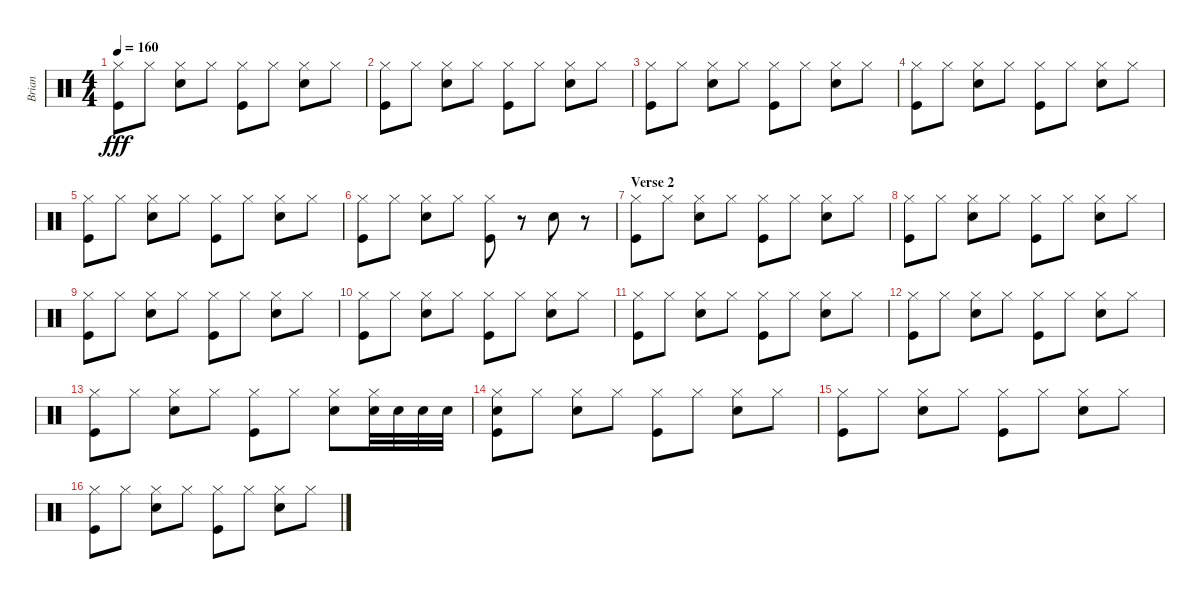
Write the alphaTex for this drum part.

\track ("Brian" "Brian") {instrument percussion}
\staff {score}
\articulation defaults
\ts (4 4)
\tempo 160
\clef neutral
\ks c
("Hi-Hat (closed)" "Kick (hit)").8{dy fff} "Hi-Hat (closed)".8 ("Hi-Hat (closed)" "Electric Snare (hit)").8 "Hi-Hat (closed)".8 ("Hi-Hat (closed)" "Kick (hit)").8 "Hi-Hat (closed)".8 ("Hi-Hat (closed)" "Electric Snare (hit)").8 "Hi-Hat (closed)".8 |
("Hi-Hat (closed)" "Kick (hit)").8 "Hi-Hat (closed)".8 ("Hi-Hat (closed)" "Electric Snare (hit)").8 "Hi-Hat (closed)".8 ("Hi-Hat (closed)" "Kick (hit)").8 "Hi-Hat (closed)".8 ("Hi-Hat (closed)" "Electric Snare (hit)").8 "Hi-Hat (closed)".8 |
("Hi-Hat (closed)" "Kick (hit)").8 "Hi-Hat (closed)".8 ("Hi-Hat (closed)" "Electric Snare (hit)").8 "Hi-Hat (closed)".8 ("Hi-Hat (closed)" "Kick (hit)").8 "Hi-Hat (closed)".8 ("Hi-Hat (closed)" "Electric Snare (hit)").8 "Hi-Hat (closed)".8 |
("Hi-Hat (closed)" "Kick (hit)").8 "Hi-Hat (closed)".8 ("Hi-Hat (closed)" "Electric Snare (hit)").8 "Hi-Hat (closed)".8 ("Hi-Hat (closed)" "Kick (hit)").8 "Hi-Hat (closed)".8 ("Hi-Hat (closed)" "Electric Snare (hit)").8 "Hi-Hat (closed)".8 |
("Hi-Hat (closed)" "Kick (hit)").8 "Hi-Hat (closed)".8 ("Hi-Hat (closed)" "Electric Snare (hit)").8 "Hi-Hat (closed)".8 ("Hi-Hat (closed)" "Kick (hit)").8 "Hi-Hat (closed)".8 ("Hi-Hat (closed)" "Electric Snare (hit)").8 "Hi-Hat (closed)".8 |
("Hi-Hat (closed)" "Kick (hit)").8 "Hi-Hat (closed)".8 ("Hi-Hat (closed)" "Electric Snare (hit)").8 "Hi-Hat (closed)".8 ("Hi-Hat (closed)" "Kick (hit)").8 r.8 "Electric Snare (hit)".8 r.8 |
\section ("" "Verse 2")
("Hi-Hat (closed)" "Kick (hit)").8 "Hi-Hat (closed)".8 ("Hi-Hat (closed)" "Electric Snare (hit)").8 "Hi-Hat (closed)".8 ("Hi-Hat (closed)" "Kick (hit)").8 "Hi-Hat (closed)".8 ("Hi-Hat (closed)" "Electric Snare (hit)").8 "Hi-Hat (closed)".8 |
("Hi-Hat (closed)" "Kick (hit)").8 "Hi-Hat (closed)".8 ("Hi-Hat (closed)" "Electric Snare (hit)").8 "Hi-Hat (closed)".8 ("Hi-Hat (closed)" "Kick (hit)").8 "Hi-Hat (closed)".8 ("Hi-Hat (closed)" "Electric Snare (hit)").8 "Hi-Hat (closed)".8 |
("Hi-Hat (closed)" "Kick (hit)").8 "Hi-Hat (closed)".8 ("Hi-Hat (closed)" "Electric Snare (hit)").8 "Hi-Hat (closed)".8 ("Hi-Hat (closed)" "Kick (hit)").8 "Hi-Hat (closed)".8 ("Hi-Hat (closed)" "Electric Snare (hit)").8 "Hi-Hat (closed)".8 |
("Hi-Hat (closed)" "Kick (hit)").8 "Hi-Hat (closed)".8 ("Hi-Hat (closed)" "Electric Snare (hit)").8 "Hi-Hat (closed)".8 ("Hi-Hat (closed)" "Kick (hit)").8 "Hi-Hat (closed)".8 ("Hi-Hat (closed)" "Electric Snare (hit)").8 "Hi-Hat (closed)".8 |
("Hi-Hat (closed)" "Kick (hit)").8 "Hi-Hat (closed)".8 ("Hi-Hat (closed)" "Electric Snare (hit)").8 "Hi-Hat (closed)".8 ("Hi-Hat (closed)" "Kick (hit)").8 "Hi-Hat (closed)".8 ("Hi-Hat (closed)" "Electric Snare (hit)").8 "Hi-Hat (closed)".8 |
("Hi-Hat (closed)" "Kick (hit)").8 "Hi-Hat (closed)".8 ("Hi-Hat (closed)" "Electric Snare (hit)").8 "Hi-Hat (closed)".8 ("Hi-Hat (closed)" "Kick (hit)").8 "Hi-Hat (closed)".8 ("Hi-Hat (closed)" "Electric Snare (hit)").8 "Hi-Hat (closed)".8 |
("Hi-Hat (closed)" "Kick (hit)").8 "Hi-Hat (closed)".8 ("Hi-Hat (closed)" "Electric Snare (hit)").8 "Hi-Hat (closed)".8 ("Hi-Hat (closed)" "Kick (hit)").8 "Hi-Hat (closed)".8 ("Hi-Hat (closed)" "Electric Snare (hit)").8 ("Hi-Hat (closed)" "Snare (hit) 2").32 "Snare (hit) 2".32 "Snare (hit) 2".32 "Snare (hit) 2".32 |
("Hi-Hat (closed)" "Snare (hit) 2" "Kick (hit)").8 "Hi-Hat (closed)".8 ("Hi-Hat (closed)" "Electric Snare (hit)").8 "Hi-Hat (closed)".8 ("Hi-Hat (closed)" "Kick (hit)").8 "Hi-Hat (closed)".8 ("Hi-Hat (closed)" "Electric Snare (hit)").8 "Hi-Hat (closed)".8 |
("Hi-Hat (closed)" "Kick (hit)").8 "Hi-Hat (closed)".8 ("Hi-Hat (closed)" "Electric Snare (hit)").8 "Hi-Hat (closed)".8 ("Hi-Hat (closed)" "Kick (hit)").8 "Hi-Hat (closed)".8 ("Hi-Hat (closed)" "Electric Snare (hit)").8 "Hi-Hat (closed)".8 |
("Hi-Hat (closed)" "Kick (hit)").8 "Hi-Hat (closed)".8 ("Hi-Hat (closed)" "Electric Snare (hit)").8 "Hi-Hat (closed)".8 ("Hi-Hat (closed)" "Kick (hit)").8 "Hi-Hat (closed)".8 ("Hi-Hat (closed)" "Electric Snare (hit)").8 "Hi-Hat (closed)".8
